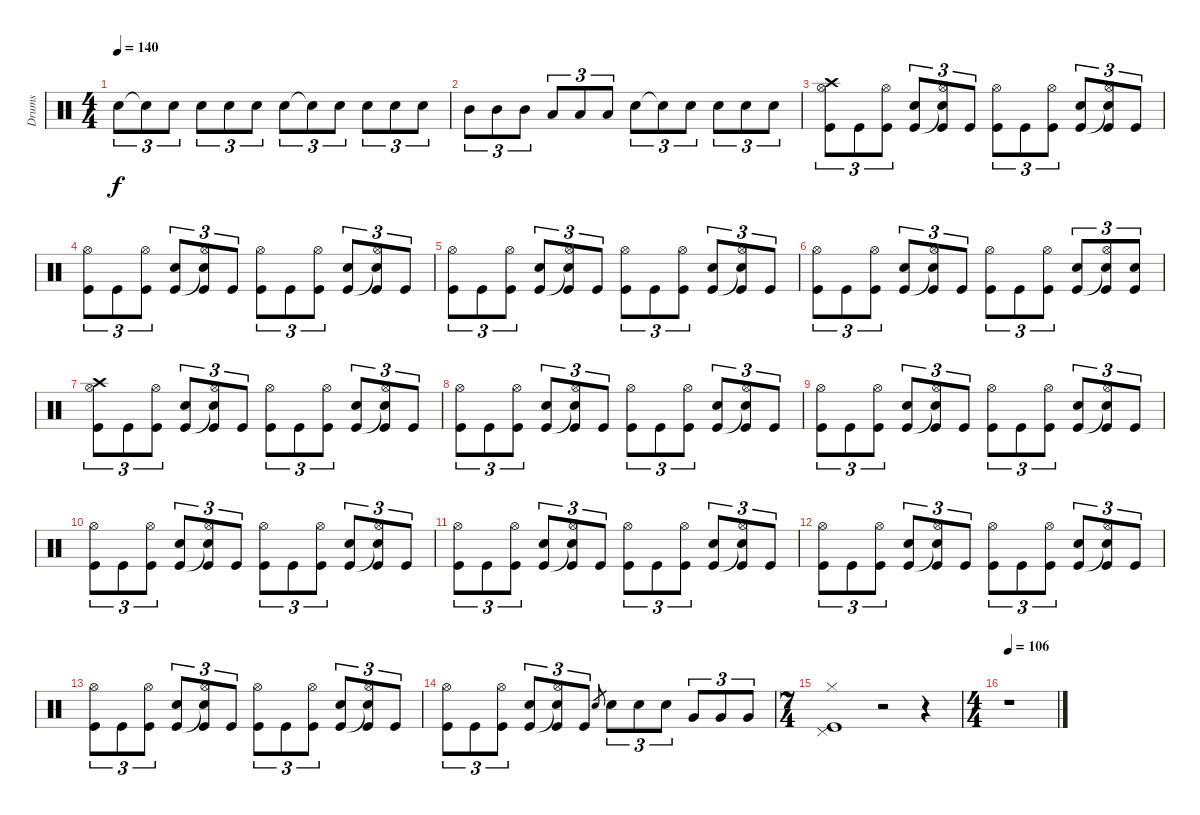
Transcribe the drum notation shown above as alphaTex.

\track ("Drums" "Drums") {instrument percussion}
\staff {score}
\articulation defaults
\ts (4 4)
\tempo 140
\clef neutral
\ks c "Electric Snare (hit)".8{tu (3 2) dy f} "Snare (hit)"{t}.8{tu (3 2)} "Electric Snare (hit)".8{tu (3 2)} "Electric Snare (hit)".8{tu (3 2)} "Electric Snare (hit)".8{tu (3 2)} "Electric Snare (hit)".8{tu (3 2)} "Electric Snare (hit)".8{tu (3 2)} "Snare (hit)"{t}.8{tu (3 2)} "Electric Snare (hit)".8{tu (3 2)} "Electric Snare (hit)".8{tu (3 2)} "Electric Snare (hit)".8{tu (3 2)} "Electric Snare (hit)".8{tu (3 2)}
|
"Mid Tom (hit)".8{tu (3 2)} "Mid Tom (hit)".8{tu (3 2)} "Mid Tom (hit)".8{tu (3 2)} "Low Tom (hit)".8{tu (3 2)} "Low Tom (hit)".8{tu (3 2)} "Low Tom (hit)".8{tu (3 2)} "Electric Snare (hit)".8{tu (3 2)} "Snare (hit)"{t}.8{tu (3 2)} "Electric Snare (hit)".8{tu (3 2)} "Electric Snare (hit)".8{tu (3 2)} "Electric Snare (hit)".8{tu (3 2)} "Electric Snare (hit)".8{tu (3 2)} |
("Crash high (hit)" "Hi-Hat (open)" "Kick (hit)").8{tu (3 2)} "Kick (hit)".8{tu (3 2)} ("Hi-Hat (open)" "Kick (hit)").8{tu (3 2)} ("Electric Snare (hit)" "Kick (hit)").8{tu (3 2)} ("Hi-Hat (open)" "Snare (hit)"{t} "Kick (hit)").8{tu (3 2)} "Kick (hit)".8{tu (3 2)} ("Hi-Hat (open)" "Kick (hit)").8{tu (3 2)} "Kick (hit)".8{tu (3 2)} ("Hi-Hat (open)" "Kick (hit)").8{tu (3 2)} ("Electric Snare (hit)" "Kick (hit)").8{tu (3 2)} ("Hi-Hat (open)" "Snare (hit)"{t} "Kick (hit)").8{tu (3 2)} "Kick (hit)".8{tu (3 2)} |
("Hi-Hat (open)" "Kick (hit)").8{tu (3 2)} "Kick (hit)".8{tu (3 2)} ("Hi-Hat (open)" "Kick (hit)").8{tu (3 2)} ("Electric Snare (hit)" "Kick (hit)").8{tu (3 2)} ("Hi-Hat (open)" "Snare (hit)"{t} "Kick (hit)").8{tu (3 2)} "Kick (hit)".8{tu (3 2)} ("Hi-Hat (open)" "Kick (hit)").8{tu (3 2)} "Kick (hit)".8{tu (3 2)} ("Hi-Hat (open)" "Kick (hit)").8{tu (3 2)} ("Electric Snare (hit)" "Kick (hit)").8{tu (3 2)} ("Hi-Hat (open)" "Snare (hit)"{t} "Kick (hit)").8{tu (3 2)} "Kick (hit)".8{tu (3 2)} |
("Hi-Hat (open)" "Kick (hit)").8{tu (3 2)} "Kick (hit)".8{tu (3 2)} ("Hi-Hat (open)" "Kick (hit)").8{tu (3 2)} ("Electric Snare (hit)" "Kick (hit)").8{tu (3 2)} ("Hi-Hat (open)" "Snare (hit)"{t} "Kick (hit)").8{tu (3 2)} "Kick (hit)".8{tu (3 2)} ("Hi-Hat (open)" "Kick (hit)").8{tu (3 2)} "Kick (hit)".8{tu (3 2)} ("Hi-Hat (open)" "Kick (hit)").8{tu (3 2)} ("Electric Snare (hit)" "Kick (hit)").8{tu (3 2)} ("Hi-Hat (open)" "Snare (hit)"{t} "Kick (hit)").8{tu (3 2)} "Kick (hit)".8{tu (3 2)} |
("Hi-Hat (open)" "Kick (hit)").8{tu (3 2)} "Kick (hit)".8{tu (3 2)} ("Hi-Hat (open)" "Kick (hit)").8{tu (3 2)} ("Electric Snare (hit)" "Kick (hit)").8{tu (3 2)} ("Hi-Hat (open)" "Snare (hit)"{t} "Kick (hit)").8{tu (3 2)} "Kick (hit)".8{tu (3 2)} ("Hi-Hat (open)" "Kick (hit)").8{tu (3 2)} "Kick (hit)".8{tu (3 2)} ("Hi-Hat (open)" "Kick (hit)").8{tu (3 2)} ("Electric Snare (hit)" "Kick (hit)").8{tu (3 2)} ("Hi-Hat (open)" "Snare (hit)"{t} "Kick (hit)").8{tu (3 2)} ("Electric Snare (hit)" "Kick (hit)").8{tu (3 2)} |
("Crash high (hit)" "Hi-Hat (open)" "Kick (hit)").8{tu (3 2)} "Kick (hit)".8{tu (3 2)} ("Hi-Hat (open)" "Kick (hit)").8{tu (3 2)} ("Electric Snare (hit)" "Kick (hit)").8{tu (3 2)} ("Hi-Hat (open)" "Snare (hit)"{t} "Kick (hit)").8{tu (3 2)} "Kick (hit)".8{tu (3 2)} ("Hi-Hat (open)" "Kick (hit)").8{tu (3 2)} "Kick (hit)".8{tu (3 2)} ("Hi-Hat (open)" "Kick (hit)").8{tu (3 2)} ("Electric Snare (hit)" "Kick (hit)").8{tu (3 2)} ("Hi-Hat (open)" "Snare (hit)"{t} "Kick (hit)").8{tu (3 2)} "Kick (hit)".8{tu (3 2)} |
("Hi-Hat (open)" "Kick (hit)").8{tu (3 2)} "Kick (hit)".8{tu (3 2)} ("Hi-Hat (open)" "Kick (hit)").8{tu (3 2)} ("Electric Snare (hit)" "Kick (hit)").8{tu (3 2)} ("Hi-Hat (open)" "Snare (hit)"{t} "Kick (hit)").8{tu (3 2)} "Kick (hit)".8{tu (3 2)} ("Hi-Hat (open)" "Kick (hit)").8{tu (3 2)} "Kick (hit)".8{tu (3 2)} ("Hi-Hat (open)" "Kick (hit)").8{tu (3 2)} ("Electric Snare (hit)" "Kick (hit)").8{tu (3 2)} ("Hi-Hat (open)" "Snare (hit)"{t} "Kick (hit)").8{tu (3 2)} "Kick (hit)".8{tu (3 2)} |
("Hi-Hat (open)" "Kick (hit)").8{tu (3 2)} "Kick (hit)".8{tu (3 2)} ("Hi-Hat (open)" "Kick (hit)").8{tu (3 2)} ("Electric Snare (hit)" "Kick (hit)").8{tu (3 2)} ("Hi-Hat (open)" "Snare (hit)"{t} "Kick (hit)").8{tu (3 2)} "Kick (hit)".8{tu (3 2)} ("Hi-Hat (open)" "Kick (hit)").8{tu (3 2)} "Kick (hit)".8{tu (3 2)} ("Hi-Hat (open)" "Kick (hit)").8{tu (3 2)} ("Electric Snare (hit)" "Kick (hit)").8{tu (3 2)} ("Hi-Hat (open)" "Snare (hit)"{t} "Kick (hit)").8{tu (3 2)} "Kick (hit)".8{tu (3 2)} |
("Hi-Hat (open)" "Kick (hit)").8{tu (3 2)} "Kick (hit)".8{tu (3 2)} ("Hi-Hat (open)" "Kick (hit)").8{tu (3 2)} ("Electric Snare (hit)" "Kick (hit)").8{tu (3 2)} ("Hi-Hat (open)" "Snare (hit)"{t} "Kick (hit)").8{tu (3 2)} "Kick (hit)".8{tu (3 2)} ("Hi-Hat (open)" "Kick (hit)").8{tu (3 2)} "Kick (hit)".8{tu (3 2)} ("Hi-Hat (open)" "Kick (hit)").8{tu (3 2)} ("Electric Snare (hit)" "Kick (hit)").8{tu (3 2)} ("Hi-Hat (open)" "Snare (hit)"{t} "Kick (hit)").8{tu (3 2)} "Kick (hit)".8{tu (3 2)} |
("Hi-Hat (open)" "Kick (hit)").8{tu (3 2)} "Kick (hit)".8{tu (3 2)} ("Hi-Hat (open)" "Kick (hit)").8{tu (3 2)} ("Electric Snare (hit)" "Kick (hit)").8{tu (3 2)} ("Hi-Hat (open)" "Snare (hit)"{t} "Kick (hit)").8{tu (3 2)} "Kick (hit)".8{tu (3 2)} ("Hi-Hat (open)" "Kick (hit)").8{tu (3 2)} "Kick (hit)".8{tu (3 2)} ("Hi-Hat (open)" "Kick (hit)").8{tu (3 2)} ("Electric Snare (hit)" "Kick (hit)").8{tu (3 2)} ("Hi-Hat (open)" "Snare (hit)"{t} "Kick (hit)").8{tu (3 2)} "Kick (hit)".8{tu (3 2)} |
("Hi-Hat (open)" "Kick (hit)").8{tu (3 2)} "Kick (hit)".8{tu (3 2)} ("Hi-Hat (open)" "Kick (hit)").8{tu (3 2)} ("Electric Snare (hit)" "Kick (hit)").8{tu (3 2)} ("Hi-Hat (open)" "Snare (hit)"{t} "Kick (hit)").8{tu (3 2)} "Kick (hit)".8{tu (3 2)} ("Hi-Hat (open)" "Kick (hit)").8{tu (3 2)} "Kick (hit)".8{tu (3 2)} ("Hi-Hat (open)" "Kick (hit)").8{tu (3 2)} ("Electric Snare (hit)" "Kick (hit)").8{tu (3 2)} ("Hi-Hat (open)" "Snare (hit)"{t} "Kick (hit)").8{tu (3 2)} "Kick (hit)".8{tu (3 2)} |
("Hi-Hat (open)" "Kick (hit)").8{tu (3 2)} "Kick (hit)".8{tu (3 2)} ("Hi-Hat (open)" "Kick (hit)").8{tu (3 2)} ("Electric Snare (hit)" "Kick (hit)").8{tu (3 2)} ("Hi-Hat (open)" "Snare (hit)"{t} "Kick (hit)").8{tu (3 2)} "Kick (hit)".8{tu (3 2)} ("Hi-Hat (open)" "Kick (hit)").8{tu (3 2)} "Kick (hit)".8{tu (3 2)} ("Hi-Hat (open)" "Kick (hit)").8{tu (3 2)} ("Electric Snare (hit)" "Kick (hit)").8{tu (3 2)} ("Hi-Hat (open)" "Snare (hit)"{t} "Kick (hit)").8{tu (3 2)} "Kick (hit)".8{tu (3 2)} |
("Hi-Hat (open)" "Kick (hit)").8{tu (3 2)} "Kick (hit)".8{tu (3 2)} ("Hi-Hat (open)" "Kick (hit)").8{tu (3 2)} ("Electric Snare (hit)" "Kick (hit)").8{tu (3 2)} ("Hi-Hat (open)" "Snare (hit)"{t} "Kick (hit)").8{tu (3 2)} "Kick (hit)".8{tu (3 2)} "Electric Snare (hit)".8{gr} "Electric Snare (hit)".8{tu (3 2)} "Electric Snare (hit)".8{tu (3 2)} "Electric Snare (hit)".8{tu (3 2)} "Very Low Tom (hit)".8{tu (3 2)} "Very Low Tom (hit)".8{tu (3 2)} "Very Low Tom (hit)".8{tu (3 2)} |
\ts (7 4)
("Pedal Hi-Hat (hit)" "Hi-Hat (closed)" "Kick (hit)").1 r.2 r.4 |
\ts (4 4)
\tempo 106
r.1
